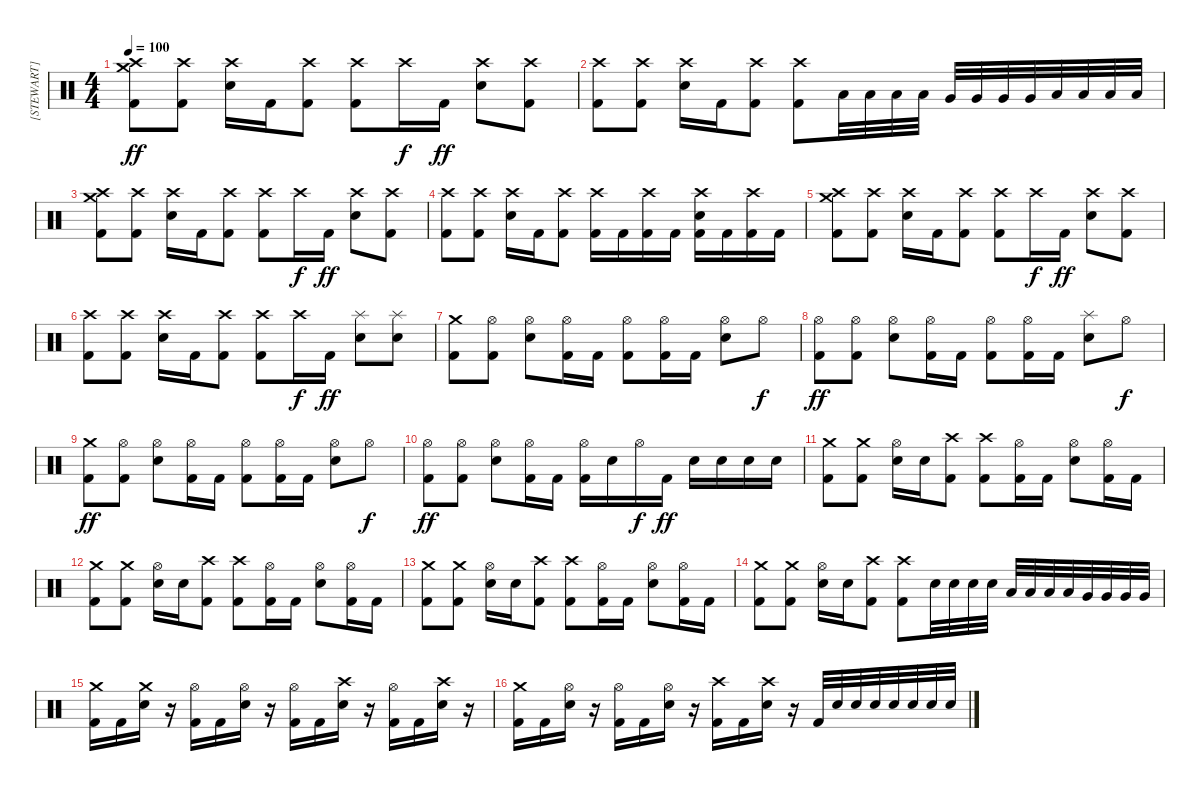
\track ("[STEWART]" "[STEWART]") {instrument percussion}
\staff {score}
\articulation defaults
\ts (4 4)
\tempo 100
\clef neutral
\ks c
("Crash high (hit)" "Crash medium (hit)" "Kick (hit) 2").8{dy ff} ("Crash high (hit)" "Kick (hit) 2").8 ("Crash high (hit)" "Electric Snare (hit)").16 "Kick (hit) 2".16 ("Crash high (hit)" "Kick (hit) 2").8 ("Crash high (hit)" "Kick (hit) 2").8 "Crash high (hit)".16{dy f} "Kick (hit) 2".16{dy ff} ("Crash high (hit)" "Electric Snare (hit)").8 ("Crash high (hit)" "Kick (hit) 2").8 |
("Crash high (hit)" "Kick (hit) 2").8 ("Crash high (hit)" "Kick (hit) 2").8 ("Crash high (hit)" "Electric Snare (hit)").16 "Kick (hit) 2".16 ("Crash high (hit)" "Kick (hit) 2").8 ("Crash high (hit)" "Kick (hit) 2").8 "Low Tom (hit)".32 "Low Tom (hit)".32 "Low Tom (hit)".32 "Low Tom (hit)".32 "Very Low Tom (hit)".32 "Very Low Tom (hit)".32 "Very Low Tom (hit)".32 "Very Low Tom (hit)".32 "Low Floor Tom (hit)".32 "Low Floor Tom (hit)".32 "Low Floor Tom (hit)".32 "Low Floor Tom (hit)".32 |
("Crash high (hit)" "Crash medium (hit)" "Kick (hit) 2").8 ("Crash high (hit)" "Kick (hit) 2").8 ("Crash high (hit)" "Electric Snare (hit)").16 "Kick (hit) 2".16 ("Crash high (hit)" "Kick (hit) 2").8 ("Crash high (hit)" "Kick (hit) 2").8 "Crash high (hit)".16{dy f} "Kick (hit) 2".16{dy ff} ("Crash high (hit)" "Electric Snare (hit)").8 ("Crash high (hit)" "Kick (hit) 2").8 |
("Crash high (hit)" "Kick (hit) 2").8 ("Crash high (hit)" "Kick (hit) 2").8 ("Crash high (hit)" "Electric Snare (hit)").16 "Kick (hit) 2".16 ("Crash high (hit)" "Kick (hit) 2").8 ("Crash high (hit)" "Kick (hit) 2").16 "Kick (hit) 2".16 ("Crash high (hit)" "Kick (hit) 2").16 "Kick (hit) 2".16 ("Crash high (hit)" "Electric Snare (hit)" "Kick (hit) 2").16 "Kick (hit) 2".16 ("Crash high (hit)" "Kick (hit) 2").16 "Kick (hit) 2".16 |
("Crash high (hit)" "Crash medium (hit)" "Kick (hit) 2").8 ("Crash high (hit)" "Kick (hit) 2").8 ("Crash high (hit)" "Electric Snare (hit)").16 "Kick (hit) 2".16 ("Crash high (hit)" "Kick (hit) 2").8 ("Crash high (hit)" "Kick (hit) 2").8 "Crash high (hit)".16{dy f} "Kick (hit) 2".16{dy ff} ("Crash high (hit)" "Electric Snare (hit)").8 ("Crash high (hit)" "Kick (hit) 2").8 |
("Crash high (hit)" "Kick (hit) 2").8 ("Crash high (hit)" "Kick (hit) 2").8 ("Crash high (hit)" "Electric Snare (hit)").16 "Kick (hit) 2".16 ("Crash high (hit)" "Kick (hit) 2").8 ("Crash high (hit)" "Kick (hit) 2").8 "Crash high (hit)".16{dy f} "Kick (hit) 2".16{dy ff} ("Splash (hit)" "Electric Snare (hit)").8 ("Splash (hit)" "Electric Snare (hit)").8 |
("Crash medium (hit)" "Kick (hit) 2").8 ("Hi-Hat (open)" "Kick (hit) 2").8 ("Hi-Hat (open)" "Electric Snare (hit)").8 ("Hi-Hat (open)" "Kick (hit) 2").16 "Kick (hit) 2".16 ("Hi-Hat (open)" "Kick (hit) 2").8 ("Hi-Hat (open)" "Kick (hit) 2").16 "Kick (hit) 2".16 ("Hi-Hat (open)" "Electric Snare (hit)").8 "Hi-Hat (open)".8{dy f} |
("Hi-Hat (open)" "Kick (hit) 2").8{dy ff} ("Hi-Hat (open)" "Kick (hit) 2").8 ("Hi-Hat (open)" "Electric Snare (hit)").8 ("Hi-Hat (open)" "Kick (hit) 2").16 "Kick (hit) 2".16 ("Hi-Hat (open)" "Kick (hit) 2").8 ("Hi-Hat (open)" "Kick (hit) 2").16 "Kick (hit) 2".16 ("Splash (hit)" "Electric Snare (hit)").8 "Hi-Hat (open)".8{dy f} |
("Crash medium (hit)" "Kick (hit) 2").8{dy ff} ("Hi-Hat (open)" "Kick (hit) 2").8 ("Hi-Hat (open)" "Electric Snare (hit)").8 ("Hi-Hat (open)" "Kick (hit) 2").16 "Kick (hit) 2".16 ("Hi-Hat (open)" "Kick (hit) 2").8 ("Hi-Hat (open)" "Kick (hit) 2").16 "Kick (hit) 2".16 ("Hi-Hat (open)" "Electric Snare (hit)").8 "Hi-Hat (open)".8{dy f} |
("Hi-Hat (open)" "Kick (hit) 2").8{dy ff} ("Hi-Hat (open)" "Kick (hit) 2").8 ("Hi-Hat (open)" "Electric Snare (hit)").8 ("Hi-Hat (open)" "Kick (hit) 2").16 "Kick (hit) 2".16 ("Hi-Hat (open)" "Kick (hit) 2").16 "Electric Snare (hit)".16 "Hi-Hat (open)".16{dy f} "Kick (hit) 2".16{dy ff} "Electric Snare (hit)".16 "Electric Snare (hit)".16 "Electric Snare (hit)".16 "Electric Snare (hit)".16 |
("Crash medium (hit)" "Kick (hit) 2").8 ("Crash medium (hit)" "Kick (hit) 2").8 ("Hi-Hat (open)" "Electric Snare (hit)").16 "Electric Snare (hit)".16 ("Crash high (hit)" "Kick (hit) 2").8 ("Crash high (hit)" "Kick (hit) 2").8 ("Hi-Hat (open)" "Kick (hit) 2").16 "Kick (hit) 2".16 ("Hi-Hat (open)" "Electric Snare (hit)").8 ("Hi-Hat (open)" "Kick (hit) 2").16 "Kick (hit) 2".16 |
("Crash medium (hit)" "Kick (hit) 2").8 ("Crash medium (hit)" "Kick (hit) 2").8 ("Hi-Hat (open)" "Electric Snare (hit)").16 "Electric Snare (hit)".16 ("Crash high (hit)" "Kick (hit) 2").8 ("Crash high (hit)" "Kick (hit) 2").8 ("Hi-Hat (open)" "Kick (hit) 2").16 "Kick (hit) 2".16 ("Hi-Hat (open)" "Electric Snare (hit)").8 ("Hi-Hat (open)" "Kick (hit) 2").16 "Kick (hit) 2".16 |
("Crash medium (hit)" "Kick (hit) 2").8 ("Crash medium (hit)" "Kick (hit) 2").8 ("Hi-Hat (open)" "Electric Snare (hit)").16 "Electric Snare (hit)".16 ("Crash high (hit)" "Kick (hit) 2").8 ("Crash high (hit)" "Kick (hit) 2").8 ("Hi-Hat (open)" "Kick (hit) 2").16 "Kick (hit) 2".16 ("Hi-Hat (open)" "Electric Snare (hit)").8 ("Hi-Hat (open)" "Kick (hit) 2").16 "Kick (hit) 2".16 |
("Crash medium (hit)" "Kick (hit) 2").8 ("Crash medium (hit)" "Kick (hit) 2").8 ("Hi-Hat (open)" "Electric Snare (hit)").16 "Electric Snare (hit)".16 ("Crash high (hit)" "Kick (hit) 2").8 ("Crash high (hit)" "Kick (hit) 2").8 "Electric Snare (hit)".32 "Electric Snare (hit)".32 "Electric Snare (hit)".32 "Electric Snare (hit)".32 "Low Tom (hit)".32 "Low Tom (hit)".32 "Low Tom (hit)".32 "Low Tom (hit)".32 "Very Low Tom (hit)".32 "Very Low Tom (hit)".32 "Very Low Tom (hit)".32 "Very Low Tom (hit)".32 |
("Crash medium (hit)" "Kick (hit) 2").16 "Kick (hit) 2".16 ("Crash medium (hit)" "Electric Snare (hit)").16 r.16 ("Hi-Hat (open)" "Kick (hit) 2").16 "Kick (hit) 2".16 ("Hi-Hat (open)" "Electric Snare (hit)").16 r.16 ("Hi-Hat (open)" "Kick (hit) 2").16 "Kick (hit) 2".16 ("Crash high (hit)" "Electric Snare (hit)").16 r.16 ("Hi-Hat (open)" "Kick (hit) 2").16 "Kick (hit) 2".16 ("Crash high (hit)" "Electric Snare (hit)").16 r.16 |
("Crash medium (hit)" "Kick (hit) 2").16 "Kick (hit) 2".16 ("Hi-Hat (open)" "Electric Snare (hit)").16 r.16 ("Hi-Hat (open)" "Kick (hit) 2").16 "Kick (hit) 2".16 ("Hi-Hat (open)" "Electric Snare (hit)").16 r.16 ("Crash high (hit)" "Kick (hit) 2").16 "Kick (hit) 2".16 ("Crash high (hit)" "Electric Snare (hit)").16 r.16 "Kick (hit) 2".32 "Electric Snare (hit)".32 "Electric Snare (hit)".32 "Electric Snare (hit)".32 "Electric Snare (hit)".32 "Electric Snare (hit)".32 "Electric Snare (hit)".32 "Electric Snare (hit)".32
